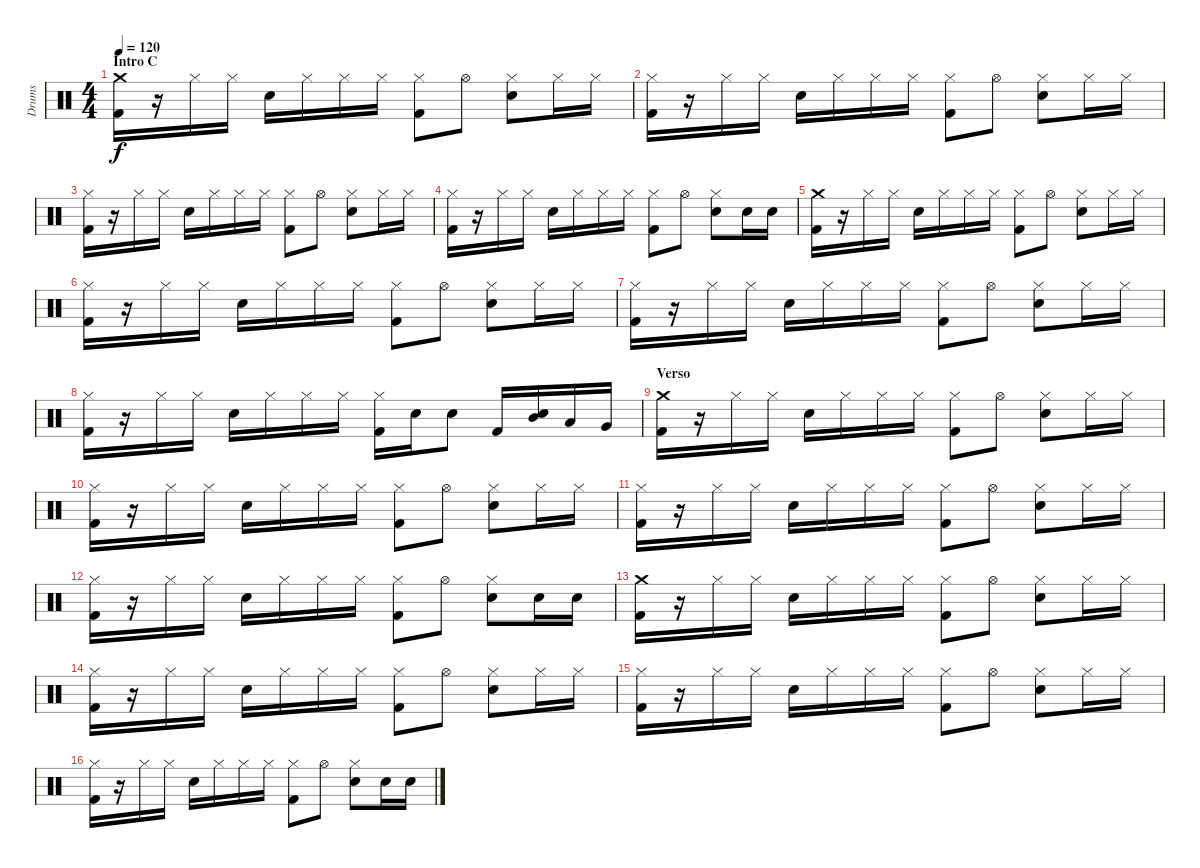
\track ("Drums" "Drums") {instrument percussion}
\staff {score}
\articulation defaults
\ts (4 4)
\section ("" "Intro C")
\tempo 120
\clef neutral
\ks c
("Crash medium (hit)" "Kick (hit) 2").16{dy f} r.16 "Hi-Hat (closed)".16 "Hi-Hat (closed)".16 "Electric Snare (hit)".16 "Hi-Hat (closed)".16 "Hi-Hat (closed)".16 "Hi-Hat (closed)".16 ("Hi-Hat (closed)" "Kick (hit) 2").8 "Hi-Hat (open)".8 ("Hi-Hat (closed)" "Electric Snare (hit)").8 "Hi-Hat (closed)".16 "Hi-Hat (closed)".16 |
("Hi-Hat (closed)" "Kick (hit) 2").16 r.16 "Hi-Hat (closed)".16 "Hi-Hat (closed)".16 "Electric Snare (hit)".16 "Hi-Hat (closed)".16 "Hi-Hat (closed)".16 "Hi-Hat (closed)".16 ("Hi-Hat (closed)" "Kick (hit) 2").8 "Hi-Hat (open)".8 ("Hi-Hat (closed)" "Electric Snare (hit)").8 "Hi-Hat (closed)".16 "Hi-Hat (closed)".16 |
("Hi-Hat (closed)" "Kick (hit) 2").16 r.16 "Hi-Hat (closed)".16 "Hi-Hat (closed)".16 "Electric Snare (hit)".16 "Hi-Hat (closed)".16 "Hi-Hat (closed)".16 "Hi-Hat (closed)".16 ("Hi-Hat (closed)" "Kick (hit) 2").8 "Hi-Hat (open)".8 ("Hi-Hat (closed)" "Electric Snare (hit)").8 "Hi-Hat (closed)".16 "Hi-Hat (closed)".16 |
("Hi-Hat (closed)" "Kick (hit) 2").16 r.16 "Hi-Hat (closed)".16 "Hi-Hat (closed)".16 "Electric Snare (hit)".16 "Hi-Hat (closed)".16 "Hi-Hat (closed)".16 "Hi-Hat (closed)".16 ("Hi-Hat (closed)" "Kick (hit) 2").8 "Hi-Hat (open)".8 ("Hi-Hat (closed)" "Electric Snare (hit)").8 "Electric Snare (hit)".16 "Electric Snare (hit)".16 |
("Crash medium (hit)" "Kick (hit) 2").16 r.16 "Hi-Hat (closed)".16 "Hi-Hat (closed)".16 "Electric Snare (hit)".16 "Hi-Hat (closed)".16 "Hi-Hat (closed)".16 "Hi-Hat (closed)".16 ("Hi-Hat (closed)" "Kick (hit) 2").8 "Hi-Hat (open)".8 ("Hi-Hat (closed)" "Electric Snare (hit)").8 "Hi-Hat (closed)".16 "Hi-Hat (closed)".16 |
("Hi-Hat (closed)" "Kick (hit) 2").16 r.16 "Hi-Hat (closed)".16 "Hi-Hat (closed)".16 "Electric Snare (hit)".16 "Hi-Hat (closed)".16 "Hi-Hat (closed)".16 "Hi-Hat (closed)".16 ("Hi-Hat (closed)" "Kick (hit) 2").8 "Hi-Hat (open)".8 ("Hi-Hat (closed)" "Electric Snare (hit)").8 "Hi-Hat (closed)".16 "Hi-Hat (closed)".16 |
("Hi-Hat (closed)" "Kick (hit) 2").16 r.16 "Hi-Hat (closed)".16 "Hi-Hat (closed)".16 "Electric Snare (hit)".16 "Hi-Hat (closed)".16 "Hi-Hat (closed)".16 "Hi-Hat (closed)".16 ("Hi-Hat (closed)" "Kick (hit) 2").8 "Hi-Hat (open)".8 ("Hi-Hat (closed)" "Electric Snare (hit)").8 "Hi-Hat (closed)".16 "Hi-Hat (closed)".16 |
("Hi-Hat (closed)" "Kick (hit) 2").16 r.16 "Hi-Hat (closed)".16 "Hi-Hat (closed)".16 "Electric Snare (hit)".16 "Hi-Hat (closed)".16 "Hi-Hat (closed)".16 "Hi-Hat (closed)".16 ("Hi-Hat (closed)" "Kick (hit) 2").16 "Electric Snare (hit)".16 "Electric Snare (hit)".8 "Kick (hit) 2".16 ("Mid Tom (hit)" "Electric Snare (hit)").16 "Low Tom (hit)".16 "Very Low Tom (hit)".16 |
\section ("" "Verso")
("Crash medium (hit)" "Kick (hit) 2").16 r.16 "Hi-Hat (closed)".16 "Hi-Hat (closed)".16 "Electric Snare (hit)".16 "Hi-Hat (closed)".16 "Hi-Hat (closed)".16 "Hi-Hat (closed)".16 ("Hi-Hat (closed)" "Kick (hit) 2").8 "Hi-Hat (open)".8 ("Hi-Hat (closed)" "Electric Snare (hit)").8 "Hi-Hat (closed)".16 "Hi-Hat (closed)".16 |
("Hi-Hat (closed)" "Kick (hit) 2").16 r.16 "Hi-Hat (closed)".16 "Hi-Hat (closed)".16 "Electric Snare (hit)".16 "Hi-Hat (closed)".16 "Hi-Hat (closed)".16 "Hi-Hat (closed)".16 ("Hi-Hat (closed)" "Kick (hit) 2").8 "Hi-Hat (open)".8 ("Hi-Hat (closed)" "Electric Snare (hit)").8 "Hi-Hat (closed)".16 "Hi-Hat (closed)".16 |
("Hi-Hat (closed)" "Kick (hit) 2").16 r.16 "Hi-Hat (closed)".16 "Hi-Hat (closed)".16 "Electric Snare (hit)".16 "Hi-Hat (closed)".16 "Hi-Hat (closed)".16 "Hi-Hat (closed)".16 ("Hi-Hat (closed)" "Kick (hit) 2").8 "Hi-Hat (open)".8 ("Hi-Hat (closed)" "Electric Snare (hit)").8 "Hi-Hat (closed)".16 "Hi-Hat (closed)".16 |
("Hi-Hat (closed)" "Kick (hit) 2").16 r.16 "Hi-Hat (closed)".16 "Hi-Hat (closed)".16 "Electric Snare (hit)".16 "Hi-Hat (closed)".16 "Hi-Hat (closed)".16 "Hi-Hat (closed)".16 ("Hi-Hat (closed)" "Kick (hit) 2").8 "Hi-Hat (open)".8 ("Hi-Hat (closed)" "Electric Snare (hit)").8 "Electric Snare (hit)".16 "Electric Snare (hit)".16 |
("Crash medium (hit)" "Kick (hit) 2").16 r.16 "Hi-Hat (closed)".16 "Hi-Hat (closed)".16 "Electric Snare (hit)".16 "Hi-Hat (closed)".16 "Hi-Hat (closed)".16 "Hi-Hat (closed)".16 ("Hi-Hat (closed)" "Kick (hit) 2").8 "Hi-Hat (open)".8 ("Hi-Hat (closed)" "Electric Snare (hit)").8 "Hi-Hat (closed)".16 "Hi-Hat (closed)".16 |
("Hi-Hat (closed)" "Kick (hit) 2").16 r.16 "Hi-Hat (closed)".16 "Hi-Hat (closed)".16 "Electric Snare (hit)".16 "Hi-Hat (closed)".16 "Hi-Hat (closed)".16 "Hi-Hat (closed)".16 ("Hi-Hat (closed)" "Kick (hit) 2").8 "Hi-Hat (open)".8 ("Hi-Hat (closed)" "Electric Snare (hit)").8 "Hi-Hat (closed)".16 "Hi-Hat (closed)".16 |
("Hi-Hat (closed)" "Kick (hit) 2").16 r.16 "Hi-Hat (closed)".16 "Hi-Hat (closed)".16 "Electric Snare (hit)".16 "Hi-Hat (closed)".16 "Hi-Hat (closed)".16 "Hi-Hat (closed)".16 ("Hi-Hat (closed)" "Kick (hit) 2").8 "Hi-Hat (open)".8 ("Hi-Hat (closed)" "Electric Snare (hit)").8 "Hi-Hat (closed)".16 "Hi-Hat (closed)".16 |
("Hi-Hat (closed)" "Kick (hit) 2").16 r.16 "Hi-Hat (closed)".16 "Hi-Hat (closed)".16 "Electric Snare (hit)".16 "Hi-Hat (closed)".16 "Hi-Hat (closed)".16 "Hi-Hat (closed)".16 ("Hi-Hat (closed)" "Kick (hit) 2").8 "Hi-Hat (open)".8 ("Hi-Hat (closed)" "Electric Snare (hit)").8 "Electric Snare (hit)".16 "Electric Snare (hit)".16
